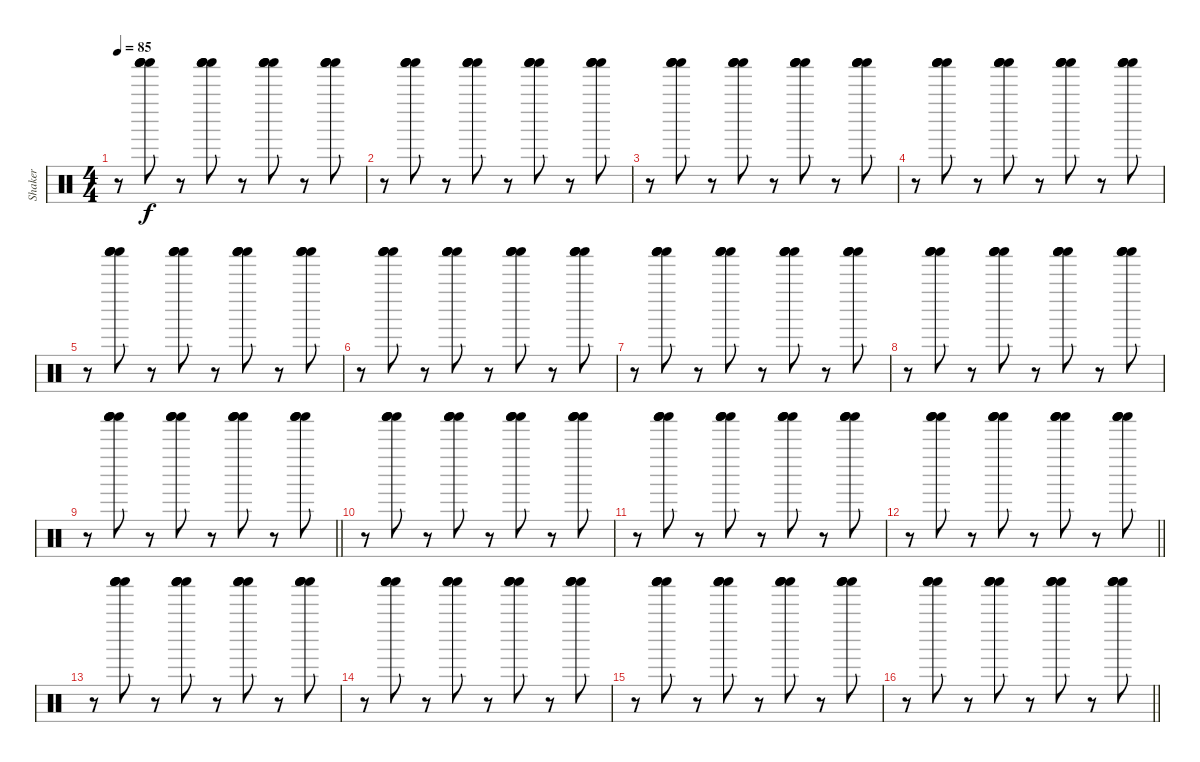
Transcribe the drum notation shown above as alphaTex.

\track ("Shaker" "Shaker") {instrument percussion}
\staff {score}
\articulation defaults
\ts (4 4)
\tempo 85
\clef neutral
\ks c
r.8{dy f} ("Shaker (hit)" "Shaker (hit)" "Shaker (hit)" "Shaker (hit)").8 r.8 ("Shaker (hit)" "Shaker (hit)" "Shaker (hit)" "Shaker (hit)").8 r.8 ("Shaker (hit)" "Shaker (hit)" "Shaker (hit)" "Shaker (hit)").8 r.8 ("Shaker (hit)" "Shaker (hit)" "Shaker (hit)" "Shaker (hit)").8 |
r.8 ("Shaker (hit)" "Shaker (hit)" "Shaker (hit)" "Shaker (hit)").8 r.8 ("Shaker (hit)" "Shaker (hit)" "Shaker (hit)" "Shaker (hit)").8 r.8 ("Shaker (hit)" "Shaker (hit)" "Shaker (hit)" "Shaker (hit)").8 r.8 ("Shaker (hit)" "Shaker (hit)" "Shaker (hit)" "Shaker (hit)").8 |
r.8 ("Shaker (hit)" "Shaker (hit)" "Shaker (hit)" "Shaker (hit)").8 r.8 ("Shaker (hit)" "Shaker (hit)" "Shaker (hit)" "Shaker (hit)").8 r.8 ("Shaker (hit)" "Shaker (hit)" "Shaker (hit)" "Shaker (hit)").8 r.8 ("Shaker (hit)" "Shaker (hit)" "Shaker (hit)" "Shaker (hit)").8 |
r.8 ("Shaker (hit)" "Shaker (hit)" "Shaker (hit)" "Shaker (hit)").8 r.8 ("Shaker (hit)" "Shaker (hit)" "Shaker (hit)" "Shaker (hit)").8 r.8 ("Shaker (hit)" "Shaker (hit)" "Shaker (hit)" "Shaker (hit)").8 r.8 ("Shaker (hit)" "Shaker (hit)" "Shaker (hit)" "Shaker (hit)").8 |
r.8 ("Shaker (hit)" "Shaker (hit)" "Shaker (hit)" "Shaker (hit)").8 r.8 ("Shaker (hit)" "Shaker (hit)" "Shaker (hit)" "Shaker (hit)").8 r.8 ("Shaker (hit)" "Shaker (hit)" "Shaker (hit)" "Shaker (hit)").8 r.8 ("Shaker (hit)" "Shaker (hit)" "Shaker (hit)" "Shaker (hit)").8 |
r.8 ("Shaker (hit)" "Shaker (hit)" "Shaker (hit)" "Shaker (hit)").8 r.8 ("Shaker (hit)" "Shaker (hit)" "Shaker (hit)" "Shaker (hit)").8 r.8 ("Shaker (hit)" "Shaker (hit)" "Shaker (hit)" "Shaker (hit)").8 r.8 ("Shaker (hit)" "Shaker (hit)" "Shaker (hit)" "Shaker (hit)").8 |
r.8 ("Shaker (hit)" "Shaker (hit)" "Shaker (hit)" "Shaker (hit)").8 r.8 ("Shaker (hit)" "Shaker (hit)" "Shaker (hit)" "Shaker (hit)").8 r.8 ("Shaker (hit)" "Shaker (hit)" "Shaker (hit)" "Shaker (hit)").8 r.8 ("Shaker (hit)" "Shaker (hit)" "Shaker (hit)" "Shaker (hit)").8 |
r.8 ("Shaker (hit)" "Shaker (hit)" "Shaker (hit)" "Shaker (hit)").8 r.8 ("Shaker (hit)" "Shaker (hit)" "Shaker (hit)" "Shaker (hit)").8 r.8 ("Shaker (hit)" "Shaker (hit)" "Shaker (hit)" "Shaker (hit)").8 r.8 ("Shaker (hit)" "Shaker (hit)" "Shaker (hit)" "Shaker (hit)").8 |
\barLineRight lightlight
r.8 ("Shaker (hit)" "Shaker (hit)" "Shaker (hit)" "Shaker (hit)").8 r.8 ("Shaker (hit)" "Shaker (hit)" "Shaker (hit)" "Shaker (hit)").8 r.8 ("Shaker (hit)" "Shaker (hit)" "Shaker (hit)" "Shaker (hit)").8 r.8 ("Shaker (hit)" "Shaker (hit)" "Shaker (hit)" "Shaker (hit)").8 |
r.8 ("Shaker (hit)" "Shaker (hit)" "Shaker (hit)" "Shaker (hit)").8 r.8 ("Shaker (hit)" "Shaker (hit)" "Shaker (hit)" "Shaker (hit)").8 r.8 ("Shaker (hit)" "Shaker (hit)" "Shaker (hit)" "Shaker (hit)").8 r.8 ("Shaker (hit)" "Shaker (hit)" "Shaker (hit)" "Shaker (hit)").8 |
r.8 ("Shaker (hit)" "Shaker (hit)" "Shaker (hit)" "Shaker (hit)").8 r.8 ("Shaker (hit)" "Shaker (hit)" "Shaker (hit)" "Shaker (hit)").8 r.8 ("Shaker (hit)" "Shaker (hit)" "Shaker (hit)" "Shaker (hit)").8 r.8 ("Shaker (hit)" "Shaker (hit)" "Shaker (hit)" "Shaker (hit)").8 |
\barLineRight lightlight
r.8 ("Shaker (hit)" "Shaker (hit)" "Shaker (hit)" "Shaker (hit)").8 r.8 ("Shaker (hit)" "Shaker (hit)" "Shaker (hit)" "Shaker (hit)").8 r.8 ("Shaker (hit)" "Shaker (hit)" "Shaker (hit)" "Shaker (hit)").8 r.8 ("Shaker (hit)" "Shaker (hit)" "Shaker (hit)" "Shaker (hit)").8 |
r.8 ("Shaker (hit)" "Shaker (hit)" "Shaker (hit)" "Shaker (hit)").8 r.8 ("Shaker (hit)" "Shaker (hit)" "Shaker (hit)" "Shaker (hit)").8 r.8 ("Shaker (hit)" "Shaker (hit)" "Shaker (hit)" "Shaker (hit)").8 r.8 ("Shaker (hit)" "Shaker (hit)" "Shaker (hit)" "Shaker (hit)").8 |
r.8 ("Shaker (hit)" "Shaker (hit)" "Shaker (hit)" "Shaker (hit)").8 r.8 ("Shaker (hit)" "Shaker (hit)" "Shaker (hit)" "Shaker (hit)").8 r.8 ("Shaker (hit)" "Shaker (hit)" "Shaker (hit)" "Shaker (hit)").8 r.8 ("Shaker (hit)" "Shaker (hit)" "Shaker (hit)" "Shaker (hit)").8 |
r.8 ("Shaker (hit)" "Shaker (hit)" "Shaker (hit)" "Shaker (hit)").8 r.8 ("Shaker (hit)" "Shaker (hit)" "Shaker (hit)" "Shaker (hit)").8 r.8 ("Shaker (hit)" "Shaker (hit)" "Shaker (hit)" "Shaker (hit)").8 r.8 ("Shaker (hit)" "Shaker (hit)" "Shaker (hit)" "Shaker (hit)").8 |
\barLineRight lightlight
r.8 ("Shaker (hit)" "Shaker (hit)" "Shaker (hit)" "Shaker (hit)").8 r.8 ("Shaker (hit)" "Shaker (hit)" "Shaker (hit)" "Shaker (hit)").8 r.8 ("Shaker (hit)" "Shaker (hit)" "Shaker (hit)" "Shaker (hit)").8 r.8 ("Shaker (hit)" "Shaker (hit)" "Shaker (hit)" "Shaker (hit)").8
